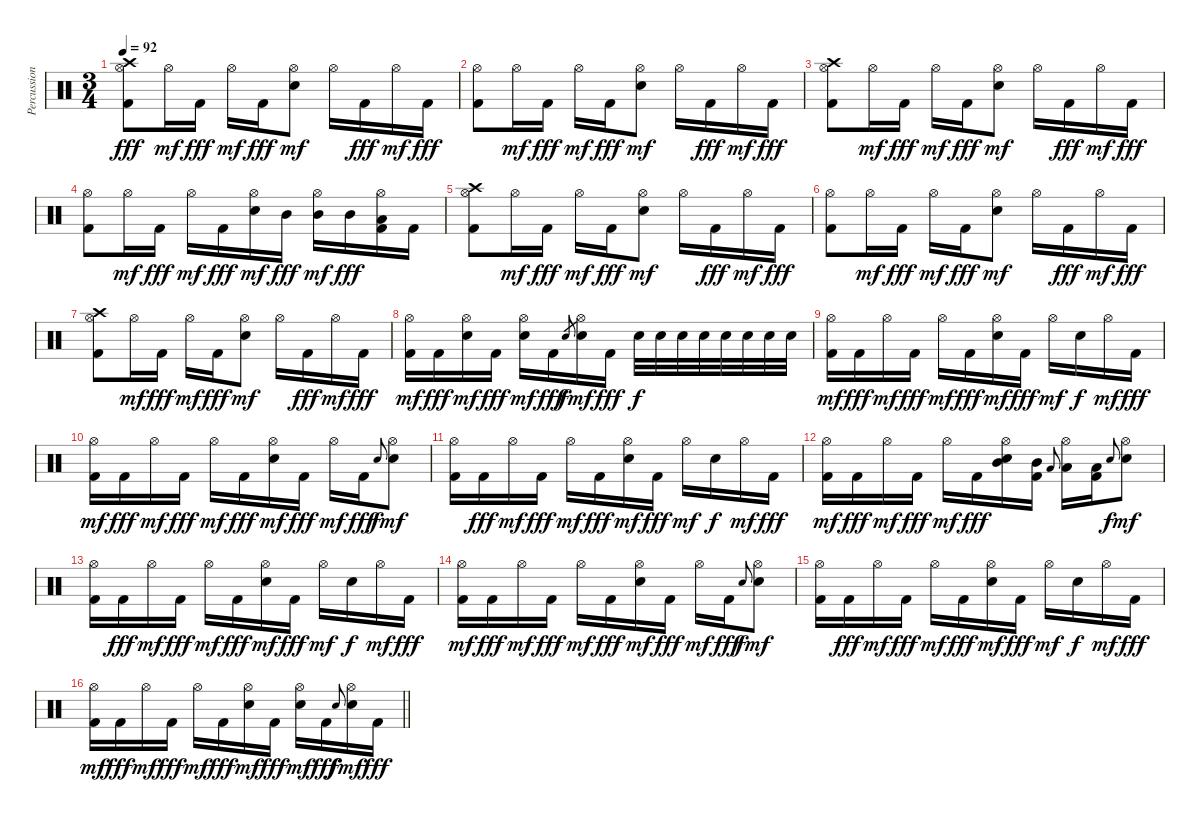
\track ("Percussion" "Percussion") {instrument percussion}
\staff {score}
\articulation defaults
\ts (3 4)
\tempo 92
\clef neutral
\ks c
("Kick (hit) 2" "Hi-Hat (open)" "Crash high (hit)").8{dy fff} "Hi-Hat (open)".16{dy mf} "Kick (hit) 2".16{dy fff} "Hi-Hat (open)".16{dy mf} "Kick (hit) 2".16{dy fff} ("Electric Snare (hit)" "Hi-Hat (open)").8{dy mf} "Hi-Hat (open)".16 "Kick (hit) 2".16{dy fff} "Hi-Hat (open)".16{dy mf} "Kick (hit) 2".16{dy fff} |
("Kick (hit) 2" "Hi-Hat (open)").8 "Hi-Hat (open)".16{dy mf} "Kick (hit) 2".16{dy fff} "Hi-Hat (open)".16{dy mf} "Kick (hit) 2".16{dy fff} ("Electric Snare (hit)" "Hi-Hat (open)").8{dy mf} "Hi-Hat (open)".16 "Kick (hit) 2".16{dy fff} "Hi-Hat (open)".16{dy mf} "Kick (hit) 2".16{dy fff} |
("Kick (hit) 2" "Hi-Hat (open)" "Crash high (hit)").8 "Hi-Hat (open)".16{dy mf} "Kick (hit) 2".16{dy fff} "Hi-Hat (open)".16{dy mf} "Kick (hit) 2".16{dy fff} ("Electric Snare (hit)" "Hi-Hat (open)").8{dy mf} "Hi-Hat (open)".16 "Kick (hit) 2".16{dy fff} "Hi-Hat (open)".16{dy mf} "Kick (hit) 2".16{dy fff} |
("Kick (hit) 2" "Hi-Hat (open)").8 "Hi-Hat (open)".16{dy mf} "Kick (hit) 2".16{dy fff} "Hi-Hat (open)".16{dy mf} "Kick (hit) 2".16{dy fff} ("Electric Snare (hit)" "Hi-Hat (open)").16{dy mf} "Mid Tom (hit)".16{dy fff} ("Mid Tom (hit)" "Hi-Hat (open)").16{dy mf} "Mid Tom (hit)".16{dy fff} ("Kick (hit) 2" "Hi-Hat (open)" "Low Tom (hit)").16 "Kick (hit) 2".16 |
("Kick (hit) 2" "Hi-Hat (open)" "Crash high (hit)").8 "Hi-Hat (open)".16{dy mf} "Kick (hit) 2".16{dy fff} "Hi-Hat (open)".16{dy mf} "Kick (hit) 2".16{dy fff} ("Electric Snare (hit)" "Hi-Hat (open)").8{dy mf} "Hi-Hat (open)".16 "Kick (hit) 2".16{dy fff} "Hi-Hat (open)".16{dy mf} "Kick (hit) 2".16{dy fff} |
("Kick (hit) 2" "Hi-Hat (open)").8 "Hi-Hat (open)".16{dy mf} "Kick (hit) 2".16{dy fff} "Hi-Hat (open)".16{dy mf} "Kick (hit) 2".16{dy fff} ("Electric Snare (hit)" "Hi-Hat (open)").8{dy mf} "Hi-Hat (open)".16 "Kick (hit) 2".16{dy fff} "Hi-Hat (open)".16{dy mf} "Kick (hit) 2".16{dy fff} |
("Kick (hit) 2" "Hi-Hat (open)" "Crash high (hit)").8 "Hi-Hat (open)".16{dy mf} "Kick (hit) 2".16{dy fff} "Hi-Hat (open)".16{dy mf} "Kick (hit) 2".16{dy fff} ("Electric Snare (hit)" "Hi-Hat (open)").8{dy mf} "Hi-Hat (open)".16 "Kick (hit) 2".16{dy fff} "Hi-Hat (open)".16{dy mf} "Kick (hit) 2".16{dy fff} |
("Kick (hit) 2" "Hi-Hat (open)").16{dy mf} "Kick (hit) 2".16{dy fff} ("Electric Snare (hit)" "Hi-Hat (open)").16{dy mf} "Kick (hit) 2".16{dy fff} ("Electric Snare (hit)" "Hi-Hat (open)").16{dy mf} "Kick (hit) 2".16{dy fff} "Electric Snare (hit)".8{gr dy f} ("Electric Snare (hit)" "Hi-Hat (open)").16{dy mf} "Kick (hit) 2".16{dy fff} "Electric Snare (hit)".32{dy f} "Electric Snare (hit)".32 "Electric Snare (hit)".32 "Electric Snare (hit)".32 "Electric Snare (hit)".32 "Electric Snare (hit)".32 "Electric Snare (hit)".32 "Electric Snare (hit)".32 |
("Kick (hit) 2" "Hi-Hat (open)").16{dy mf} "Kick (hit) 2".16{dy fff} "Hi-Hat (open)".16{dy mf} "Kick (hit) 2".16{dy fff} "Hi-Hat (open)".16{dy mf} "Kick (hit) 2".16{dy fff} ("Electric Snare (hit)" "Hi-Hat (open)").16{dy mf} "Kick (hit) 2".16{dy fff} "Hi-Hat (open)".16{dy mf} "Electric Snare (hit)".16{dy f} "Hi-Hat (open)".16{dy mf} "Kick (hit) 2".16{dy fff} |
("Kick (hit) 2" "Hi-Hat (open)").16{dy mf} "Kick (hit) 2".16{dy fff} "Hi-Hat (open)".16{dy mf} "Kick (hit) 2".16{dy fff} "Hi-Hat (open)".16{dy mf} "Kick (hit) 2".16{dy fff} ("Electric Snare (hit)" "Hi-Hat (open)").16{dy mf} "Kick (hit) 2".16{dy fff} "Hi-Hat (open)".16{dy mf} "Kick (hit) 2".16{dy fff} "Electric Snare (hit)".8{gr onbeat dy f} ("Electric Snare (hit)" "Hi-Hat (open)").8{dy mf} |
("Kick (hit) 2" "Hi-Hat (open)").16 "Kick (hit) 2".16{dy fff} "Hi-Hat (open)".16{dy mf} "Kick (hit) 2".16{dy fff} "Hi-Hat (open)".16{dy mf} "Kick (hit) 2".16{dy fff} ("Electric Snare (hit)" "Hi-Hat (open)").16{dy mf} "Kick (hit) 2".16{dy fff} "Hi-Hat (open)".16{dy mf} "Electric Snare (hit)".16{dy f} "Hi-Hat (open)".16{dy mf} "Kick (hit) 2".16{dy fff} |
("Kick (hit) 2" "Hi-Hat (open)").16{dy mf} "Kick (hit) 2".16{dy fff} "Hi-Hat (open)".16{dy mf} "Kick (hit) 2".16{dy fff} "Hi-Hat (open)".16{dy mf} "Kick (hit) 2".16{dy fff} ("Electric Snare (hit)" "Hi-Hat (open)" "Mid Tom (hit)").16 ("Kick (hit) 2" "Mid Tom (hit)").16 "Low Tom (hit)".8{gr onbeat} ("Hi-Hat (open)" "Low Tom (hit)").16 ("Kick (hit) 2" "Low Tom (hit)").16 "Electric Snare (hit)".8{gr onbeat dy f} ("Electric Snare (hit)" "Hi-Hat (open)").8{dy mf} |
("Kick (hit) 2" "Hi-Hat (open)").16 "Kick (hit) 2".16{dy fff} "Hi-Hat (open)".16{dy mf} "Kick (hit) 2".16{dy fff} "Hi-Hat (open)".16{dy mf} "Kick (hit) 2".16{dy fff} ("Electric Snare (hit)" "Hi-Hat (open)").16{dy mf} "Kick (hit) 2".16{dy fff} "Hi-Hat (open)".16{dy mf} "Electric Snare (hit)".16{dy f} "Hi-Hat (open)".16{dy mf} "Kick (hit) 2".16{dy fff} |
("Kick (hit) 2" "Hi-Hat (open)").16{dy mf} "Kick (hit) 2".16{dy fff} "Hi-Hat (open)".16{dy mf} "Kick (hit) 2".16{dy fff} "Hi-Hat (open)".16{dy mf} "Kick (hit) 2".16{dy fff} ("Electric Snare (hit)" "Hi-Hat (open)").16{dy mf} "Kick (hit) 2".16{dy fff} "Hi-Hat (open)".16{dy mf} "Kick (hit) 2".16{dy fff} "Electric Snare (hit)".8{gr onbeat dy f} ("Electric Snare (hit)" "Hi-Hat (open)").8{dy mf} |
("Kick (hit) 2" "Hi-Hat (open)").16 "Kick (hit) 2".16{dy fff} "Hi-Hat (open)".16{dy mf} "Kick (hit) 2".16{dy fff} "Hi-Hat (open)".16{dy mf} "Kick (hit) 2".16{dy fff} ("Electric Snare (hit)" "Hi-Hat (open)").16{dy mf} "Kick (hit) 2".16{dy fff} "Hi-Hat (open)".16{dy mf} "Electric Snare (hit)".16{dy f} "Hi-Hat (open)".16{dy mf} "Kick (hit) 2".16{dy fff} |
\barLineRight lightlight
("Kick (hit) 2" "Hi-Hat (open)").16{dy mf} "Kick (hit) 2".16{dy fff} "Hi-Hat (open)".16{dy mf} "Kick (hit) 2".16{dy fff} "Hi-Hat (open)".16{dy mf} "Kick (hit) 2".16{dy fff} ("Electric Snare (hit)" "Hi-Hat (open)").16{dy mf} "Kick (hit) 2".16{dy fff} ("Electric Snare (hit)" "Hi-Hat (open)").16{dy mf} "Kick (hit) 2".16{dy fff} "Electric Snare (hit)".8{gr onbeat dy f} ("Electric Snare (hit)" "Hi-Hat (open)").16{dy mf} "Kick (hit) 2".16{dy fff}
